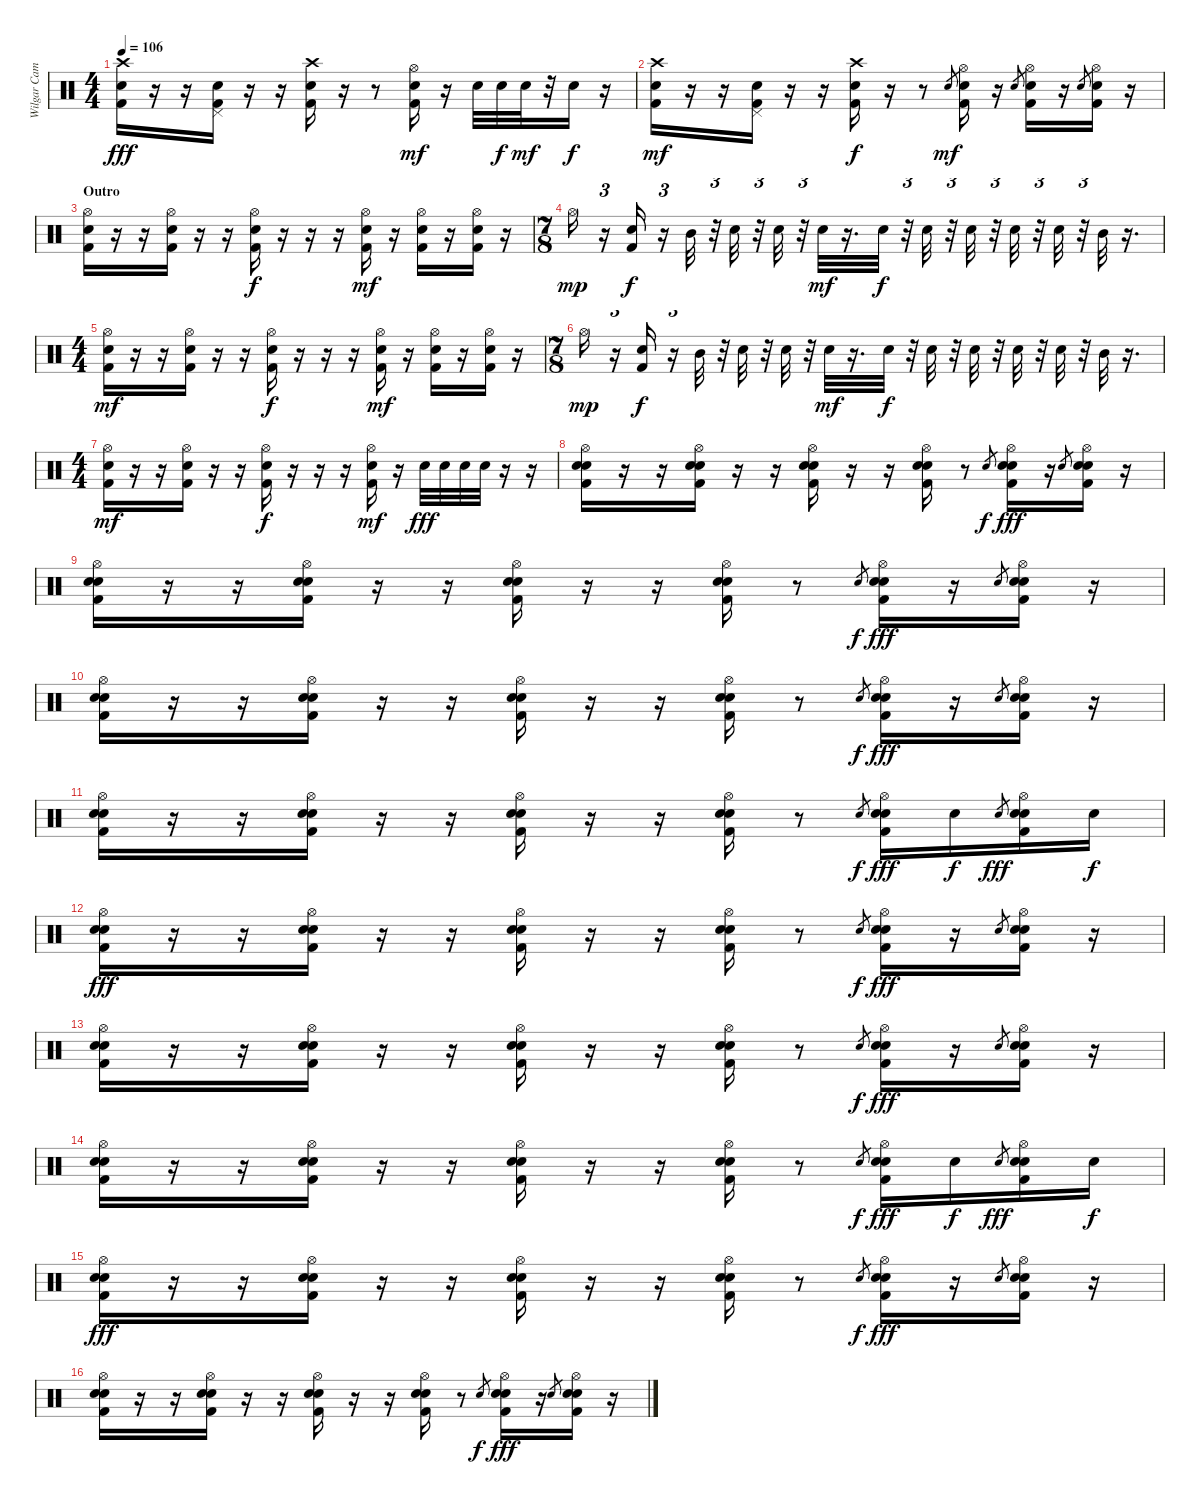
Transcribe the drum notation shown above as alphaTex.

\track ("Wilgar Campbell" "Wilgar Cam") {instrument percussion}
\staff {score}
\articulation defaults
\ts (4 4)
\tempo 106
\clef neutral
\ks c
("Crash high (hit)" "Snare (hit) 2" "Kick (hit) 2").16{dy fff} r.16 r.16 ("Pedal Hi-Hat (hit)" "Snare (hit) 2" "Kick (hit) 2").16 r.16 r.16 ("Crash high (hit)" "Snare (hit) 2" "Kick (hit) 2").16 r.16 r.8 ("Hi-Hat (open)" "Snare (hit) 2" "Kick (hit) 2").16{dy mf} r.16 "Snare (hit) 2".32 "Snare (hit) 2".32{dy f} "Snare (hit) 2".32{dy mf} r.32 "Electric Snare (hit)".16{dy f} r.16 |
("Crash high (hit)" "Snare (hit) 2" "Kick (hit) 2").16{dy mf} r.16 r.16 ("Pedal Hi-Hat (hit)" "Snare (hit) 2" "Kick (hit) 2").16 r.16 r.16 ("Crash high (hit)" "Snare (hit) 2" "Kick (hit) 2").16{dy f} r.16 r.8 "Snare (hit) 2".8{gr dy mf} ("Hi-Hat (open)" "Snare (hit) 2" "Kick (hit) 2").16 r.16 "Snare (hit) 2".8{gr} ("Hi-Hat (open)" "Snare (hit) 2" "Kick (hit) 2").16 r.16 "Snare (hit) 2".8{gr} ("Hi-Hat (open)" "Snare (hit) 2" "Kick (hit) 2").16 r.16 |
\section ("" "Outro")
("Hi-Hat (open)" "Snare (hit) 2" "Kick (hit) 2").16 r.16 r.16 ("Hi-Hat (open)" "Snare (hit) 2" "Kick (hit) 2").16 r.16 r.16 ("Hi-Hat (open)" "Snare (hit) 2" "Kick (hit) 2").16{dy f} r.16 r.16 r.16 ("Hi-Hat (open)" "Snare (hit) 2" "Kick (hit) 2").16{dy mf} r.16 ("Hi-Hat (open)" "Snare (hit) 2" "Kick (hit) 2").16 r.16 ("Hi-Hat (open)" "Snare (hit) 2" "Kick (hit) 2").16 r.16 |
\ts (7 8)
"Hi-Hat (open)".16{dy mp} r.16{tu (3 2)} ("Snare (hit) 2" "Kick (hit) 2").16{dy f} r.16{tu (3 2)} "Mid Tom (hit)".32 r.32{tu (3 2)} "Electric Snare (hit)".32 r.32{tu (3 2)} "Electric Snare (hit)".32 r.32{tu (3 2)} "Snare (hit) 2".32{dy mf} r.16{d} "Snare (hit) 2".32{dy f} r.32{tu (3 2)} "Electric Snare (hit)".32 r.32{tu (3 2)} "Electric Snare (hit)".32 r.32{tu (3 2)} "Electric Snare (hit)".32 r.32{tu (3 2)} "Snare (hit) 2".32 r.32{tu (3 2)} "Mid Tom (hit)".32 r.16{d} |
\ts (4 4)
("Hi-Hat (open)" "Snare (hit) 2" "Kick (hit) 2").16{dy mf} r.16 r.16 ("Hi-Hat (open)" "Snare (hit) 2" "Kick (hit) 2").16 r.16 r.16 ("Hi-Hat (open)" "Snare (hit) 2" "Kick (hit) 2").16{dy f} r.16 r.16 r.16 ("Hi-Hat (open)" "Snare (hit) 2" "Kick (hit) 2").16{dy mf} r.16 ("Hi-Hat (open)" "Snare (hit) 2" "Kick (hit) 2").16 r.16 ("Hi-Hat (open)" "Snare (hit) 2" "Kick (hit) 2").16 r.16 |
\ts (7 8)
"Hi-Hat (open)".16{dy mp} r.16{tu (3 2)} ("Snare (hit) 2" "Kick (hit) 2").16{dy f} r.16{tu (3 2)} "Mid Tom (hit)".32 r.32{tu (3 2)} "Electric Snare (hit)".32 r.32{tu (3 2)} "Electric Snare (hit)".32 r.32{tu (3 2)} "Snare (hit) 2".32{dy mf} r.16{d} "Snare (hit) 2".32{dy f} r.32{tu (3 2)} "Electric Snare (hit)".32 r.32{tu (3 2)} "Electric Snare (hit)".32 r.32{tu (3 2)} "Electric Snare (hit)".32 r.32{tu (3 2)} "Snare (hit) 2".32 r.32{tu (3 2)} "Mid Tom (hit)".32 r.16{d} |
\ts (4 4)
("Hi-Hat (open)" "Snare (hit) 2" "Kick (hit) 2").16{dy mf} r.16 r.16 ("Hi-Hat (open)" "Snare (hit) 2" "Kick (hit) 2").16 r.16 r.16 ("Hi-Hat (open)" "Snare (hit) 2" "Kick (hit) 2").16{dy f} r.16 r.16 r.16 ("Hi-Hat (open)" "Snare (hit) 2" "Kick (hit) 2").16{dy mf} r.16 "Snare (hit) 2".32{dy fff} "Snare (hit) 2".32 "Snare (hit) 2".32 "Snare (hit) 2".32 r.16 r.16 |
("Hi-Hat (open)" "Snare (hit) 2" "Electric Snare (hit)" "Kick (hit) 2").16 r.16 r.16 ("Hi-Hat (open)" "Snare (hit) 2" "Electric Snare (hit)" "Kick (hit) 2").16 r.16 r.16 ("Hi-Hat (open)" "Snare (hit) 2" "Electric Snare (hit)" "Kick (hit) 2").16 r.16 r.16 ("Hi-Hat (open)" "Snare (hit) 2" "Electric Snare (hit)" "Kick (hit) 2").16 r.8 "Electric Snare (hit)".8{gr dy f} ("Hi-Hat (open)" "Snare (hit) 2" "Electric Snare (hit)" "Kick (hit) 2").16{dy fff} r.16 "Electric Snare (hit)".8{gr} ("Hi-Hat (open)" "Snare (hit) 2" "Electric Snare (hit)" "Kick (hit) 2").16 r.16 |
("Hi-Hat (open)" "Snare (hit) 2" "Electric Snare (hit)" "Kick (hit) 2").16 r.16 r.16 ("Hi-Hat (open)" "Snare (hit) 2" "Electric Snare (hit)" "Kick (hit) 2").16 r.16 r.16 ("Hi-Hat (open)" "Snare (hit) 2" "Electric Snare (hit)" "Kick (hit) 2").16 r.16 r.16 ("Hi-Hat (open)" "Snare (hit) 2" "Electric Snare (hit)" "Kick (hit) 2").16 r.8 "Electric Snare (hit)".8{gr dy f} ("Hi-Hat (open)" "Snare (hit) 2" "Electric Snare (hit)" "Kick (hit) 2").16{dy fff} r.16 "Electric Snare (hit)".8{gr} ("Hi-Hat (open)" "Snare (hit) 2" "Electric Snare (hit)" "Kick (hit) 2").16 r.16 |
("Hi-Hat (open)" "Snare (hit) 2" "Electric Snare (hit)" "Kick (hit) 2").16 r.16 r.16 ("Hi-Hat (open)" "Snare (hit) 2" "Electric Snare (hit)" "Kick (hit) 2").16 r.16 r.16 ("Hi-Hat (open)" "Snare (hit) 2" "Electric Snare (hit)" "Kick (hit) 2").16 r.16 r.16 ("Hi-Hat (open)" "Snare (hit) 2" "Electric Snare (hit)" "Kick (hit) 2").16 r.8 "Electric Snare (hit)".8{gr dy f} ("Hi-Hat (open)" "Snare (hit) 2" "Electric Snare (hit)" "Kick (hit) 2").16{dy fff} r.16 "Electric Snare (hit)".8{gr} ("Hi-Hat (open)" "Snare (hit) 2" "Electric Snare (hit)" "Kick (hit) 2").16 r.16 |
("Hi-Hat (open)" "Snare (hit) 2" "Electric Snare (hit)" "Kick (hit) 2").16 r.16 r.16 ("Hi-Hat (open)" "Snare (hit) 2" "Electric Snare (hit)" "Kick (hit) 2").16 r.16 r.16 ("Hi-Hat (open)" "Snare (hit) 2" "Electric Snare (hit)" "Kick (hit) 2").16 r.16 r.16 ("Hi-Hat (open)" "Snare (hit) 2" "Electric Snare (hit)" "Kick (hit) 2").16 r.8 "Electric Snare (hit)".8{gr dy f} ("Hi-Hat (open)" "Snare (hit) 2" "Electric Snare (hit)" "Kick (hit) 2").16{dy fff} "Electric Snare (hit)".16{dy f} "Electric Snare (hit)".8{gr dy fff} ("Hi-Hat (open)" "Snare (hit) 2" "Electric Snare (hit)" "Kick (hit) 2").16 "Electric Snare (hit)".16{dy f} |
("Hi-Hat (open)" "Snare (hit) 2" "Electric Snare (hit)" "Kick (hit) 2").16{dy fff} r.16 r.16 ("Hi-Hat (open)" "Snare (hit) 2" "Electric Snare (hit)" "Kick (hit) 2").16 r.16 r.16 ("Hi-Hat (open)" "Snare (hit) 2" "Electric Snare (hit)" "Kick (hit) 2").16 r.16 r.16 ("Hi-Hat (open)" "Snare (hit) 2" "Electric Snare (hit)" "Kick (hit) 2").16 r.8 "Electric Snare (hit)".8{gr dy f} ("Hi-Hat (open)" "Snare (hit) 2" "Electric Snare (hit)" "Kick (hit) 2").16{dy fff} r.16 "Electric Snare (hit)".8{gr} ("Hi-Hat (open)" "Snare (hit) 2" "Electric Snare (hit)" "Kick (hit) 2").16 r.16 |
("Hi-Hat (open)" "Snare (hit) 2" "Electric Snare (hit)" "Kick (hit) 2").16 r.16 r.16 ("Hi-Hat (open)" "Snare (hit) 2" "Electric Snare (hit)" "Kick (hit) 2").16 r.16 r.16 ("Hi-Hat (open)" "Snare (hit) 2" "Electric Snare (hit)" "Kick (hit) 2").16 r.16 r.16 ("Hi-Hat (open)" "Snare (hit) 2" "Electric Snare (hit)" "Kick (hit) 2").16 r.8 "Electric Snare (hit)".8{gr dy f} ("Hi-Hat (open)" "Snare (hit) 2" "Electric Snare (hit)" "Kick (hit) 2").16{dy fff} r.16 "Electric Snare (hit)".8{gr} ("Hi-Hat (open)" "Snare (hit) 2" "Electric Snare (hit)" "Kick (hit) 2").16 r.16 |
("Hi-Hat (open)" "Snare (hit) 2" "Electric Snare (hit)" "Kick (hit) 2").16 r.16 r.16 ("Hi-Hat (open)" "Snare (hit) 2" "Electric Snare (hit)" "Kick (hit) 2").16 r.16 r.16 ("Hi-Hat (open)" "Snare (hit) 2" "Electric Snare (hit)" "Kick (hit) 2").16 r.16 r.16 ("Hi-Hat (open)" "Snare (hit) 2" "Electric Snare (hit)" "Kick (hit) 2").16 r.8 "Electric Snare (hit)".8{gr dy f} ("Hi-Hat (open)" "Snare (hit) 2" "Electric Snare (hit)" "Kick (hit) 2").16{dy fff} "Electric Snare (hit)".16{dy f} "Electric Snare (hit)".8{gr dy fff} ("Hi-Hat (open)" "Snare (hit) 2" "Electric Snare (hit)" "Kick (hit) 2").16 "Electric Snare (hit)".16{dy f} |
("Hi-Hat (open)" "Snare (hit) 2" "Electric Snare (hit)" "Kick (hit) 2").16{dy fff} r.16 r.16 ("Hi-Hat (open)" "Snare (hit) 2" "Electric Snare (hit)" "Kick (hit) 2").16 r.16 r.16 ("Hi-Hat (open)" "Snare (hit) 2" "Electric Snare (hit)" "Kick (hit) 2").16 r.16 r.16 ("Hi-Hat (open)" "Snare (hit) 2" "Electric Snare (hit)" "Kick (hit) 2").16 r.8 "Electric Snare (hit)".8{gr dy f} ("Hi-Hat (open)" "Snare (hit) 2" "Electric Snare (hit)" "Kick (hit) 2").16{dy fff} r.16 "Electric Snare (hit)".8{gr} ("Hi-Hat (open)" "Snare (hit) 2" "Electric Snare (hit)" "Kick (hit) 2").16 r.16 |
("Hi-Hat (open)" "Snare (hit) 2" "Electric Snare (hit)" "Kick (hit) 2").16 r.16 r.16 ("Hi-Hat (open)" "Snare (hit) 2" "Electric Snare (hit)" "Kick (hit) 2").16 r.16 r.16 ("Hi-Hat (open)" "Snare (hit) 2" "Electric Snare (hit)" "Kick (hit) 2").16 r.16 r.16 ("Hi-Hat (open)" "Snare (hit) 2" "Electric Snare (hit)" "Kick (hit) 2").16 r.8 "Electric Snare (hit)".8{gr dy f} ("Hi-Hat (open)" "Snare (hit) 2" "Electric Snare (hit)" "Kick (hit) 2").16{dy fff} r.16 "Electric Snare (hit)".8{gr} ("Hi-Hat (open)" "Snare (hit) 2" "Electric Snare (hit)" "Kick (hit) 2").16 r.16
